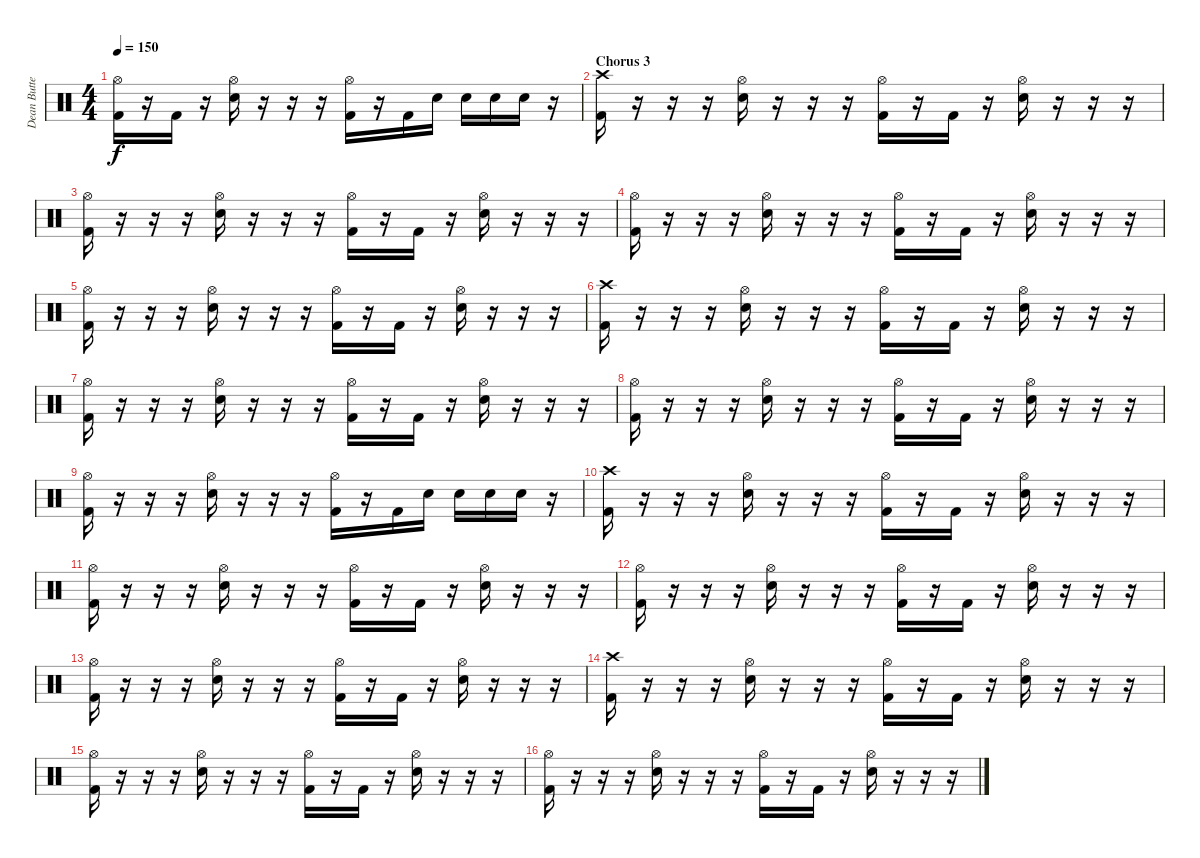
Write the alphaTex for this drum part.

\track ("Dean Butterworth" "Dean Butte") {instrument percussion}
\staff {score}
\articulation defaults
\ts (4 4)
\tempo 150
\clef neutral
\ks c
("Hi-Hat (open)" "Kick (hit) 2").16{dy f} r.16 "Kick (hit) 2".16 r.16 ("Hi-Hat (open)" "Snare (hit) 2").16 r.16 r.16 r.16 ("Hi-Hat (open)" "Kick (hit) 2").16 r.16 "Kick (hit) 2".16 "Snare (hit) 2".16 "Snare (hit) 2".16 "Snare (hit) 2".16 "Snare (hit) 2".16 r.16 |
\section ("" "Chorus 3")
("Crash high (hit)" "Kick (hit) 2").16 r.16 r.16 r.16 ("Hi-Hat (open)" "Electric Snare (hit)").16 r.16 r.16 r.16 ("Hi-Hat (open)" "Kick (hit) 2").16 r.16 "Kick (hit) 2".16 r.16 ("Hi-Hat (open)" "Electric Snare (hit)").16 r.16 r.16 r.16 |
("Hi-Hat (open)" "Kick (hit) 2").16 r.16 r.16 r.16 ("Hi-Hat (open)" "Electric Snare (hit)").16 r.16 r.16 r.16 ("Hi-Hat (open)" "Kick (hit) 2").16 r.16 "Kick (hit) 2".16 r.16 ("Hi-Hat (open)" "Electric Snare (hit)").16 r.16 r.16 r.16 |
("Hi-Hat (open)" "Kick (hit) 2").16 r.16 r.16 r.16 ("Hi-Hat (open)" "Electric Snare (hit)").16 r.16 r.16 r.16 ("Hi-Hat (open)" "Kick (hit) 2").16 r.16 "Kick (hit) 2".16 r.16 ("Hi-Hat (open)" "Electric Snare (hit)").16 r.16 r.16 r.16 |
("Hi-Hat (open)" "Kick (hit) 2").16 r.16 r.16 r.16 ("Hi-Hat (open)" "Electric Snare (hit)").16 r.16 r.16 r.16 ("Hi-Hat (open)" "Kick (hit) 2").16 r.16 "Kick (hit) 2".16 r.16 ("Hi-Hat (open)" "Electric Snare (hit)").16 r.16 r.16 r.16 |
("Crash high (hit)" "Kick (hit) 2").16 r.16 r.16 r.16 ("Hi-Hat (open)" "Electric Snare (hit)").16 r.16 r.16 r.16 ("Hi-Hat (open)" "Kick (hit) 2").16 r.16 "Kick (hit) 2".16 r.16 ("Hi-Hat (open)" "Electric Snare (hit)").16 r.16 r.16 r.16 |
("Hi-Hat (open)" "Kick (hit) 2").16 r.16 r.16 r.16 ("Hi-Hat (open)" "Electric Snare (hit)").16 r.16 r.16 r.16 ("Hi-Hat (open)" "Kick (hit) 2").16 r.16 "Kick (hit) 2".16 r.16 ("Hi-Hat (open)" "Electric Snare (hit)").16 r.16 r.16 r.16 |
("Hi-Hat (open)" "Kick (hit) 2").16 r.16 r.16 r.16 ("Hi-Hat (open)" "Electric Snare (hit)").16 r.16 r.16 r.16 ("Hi-Hat (open)" "Kick (hit) 2").16 r.16 "Kick (hit) 2".16 r.16 ("Hi-Hat (open)" "Electric Snare (hit)").16 r.16 r.16 r.16 |
("Hi-Hat (open)" "Kick (hit) 2").16 r.16 r.16 r.16 ("Hi-Hat (open)" "Electric Snare (hit)").16 r.16 r.16 r.16 ("Hi-Hat (open)" "Kick (hit) 2").16 r.16 "Kick (hit) 2".16 "Electric Snare (hit)".16 "Electric Snare (hit)".16 "Electric Snare (hit)".16 "Electric Snare (hit)".16 r.16 |
("Crash high (hit)" "Kick (hit) 2").16 r.16 r.16 r.16 ("Hi-Hat (open)" "Electric Snare (hit)").16 r.16 r.16 r.16 ("Hi-Hat (open)" "Kick (hit) 2").16 r.16 "Kick (hit) 2".16 r.16 ("Hi-Hat (open)" "Electric Snare (hit)").16 r.16 r.16 r.16 |
("Hi-Hat (open)" "Kick (hit) 2").16 r.16 r.16 r.16 ("Hi-Hat (open)" "Electric Snare (hit)").16 r.16 r.16 r.16 ("Hi-Hat (open)" "Kick (hit) 2").16 r.16 "Kick (hit) 2".16 r.16 ("Hi-Hat (open)" "Electric Snare (hit)").16 r.16 r.16 r.16 |
("Hi-Hat (open)" "Kick (hit) 2").16 r.16 r.16 r.16 ("Hi-Hat (open)" "Electric Snare (hit)").16 r.16 r.16 r.16 ("Hi-Hat (open)" "Kick (hit) 2").16 r.16 "Kick (hit) 2".16 r.16 ("Hi-Hat (open)" "Electric Snare (hit)").16 r.16 r.16 r.16 |
("Hi-Hat (open)" "Kick (hit) 2").16 r.16 r.16 r.16 ("Hi-Hat (open)" "Electric Snare (hit)").16 r.16 r.16 r.16 ("Hi-Hat (open)" "Kick (hit) 2").16 r.16 "Kick (hit) 2".16 r.16 ("Hi-Hat (open)" "Electric Snare (hit)").16 r.16 r.16 r.16 |
("Crash high (hit)" "Kick (hit) 2").16 r.16 r.16 r.16 ("Hi-Hat (open)" "Electric Snare (hit)").16 r.16 r.16 r.16 ("Hi-Hat (open)" "Kick (hit) 2").16 r.16 "Kick (hit) 2".16 r.16 ("Hi-Hat (open)" "Electric Snare (hit)").16 r.16 r.16 r.16 |
("Hi-Hat (open)" "Kick (hit) 2").16 r.16 r.16 r.16 ("Hi-Hat (open)" "Electric Snare (hit)").16 r.16 r.16 r.16 ("Hi-Hat (open)" "Kick (hit) 2").16 r.16 "Kick (hit) 2".16 r.16 ("Hi-Hat (open)" "Electric Snare (hit)").16 r.16 r.16 r.16 |
("Hi-Hat (open)" "Kick (hit) 2").16 r.16 r.16 r.16 ("Hi-Hat (open)" "Electric Snare (hit)").16 r.16 r.16 r.16 ("Hi-Hat (open)" "Kick (hit) 2").16 r.16 "Kick (hit) 2".16 r.16 ("Hi-Hat (open)" "Electric Snare (hit)").16 r.16 r.16 r.16
